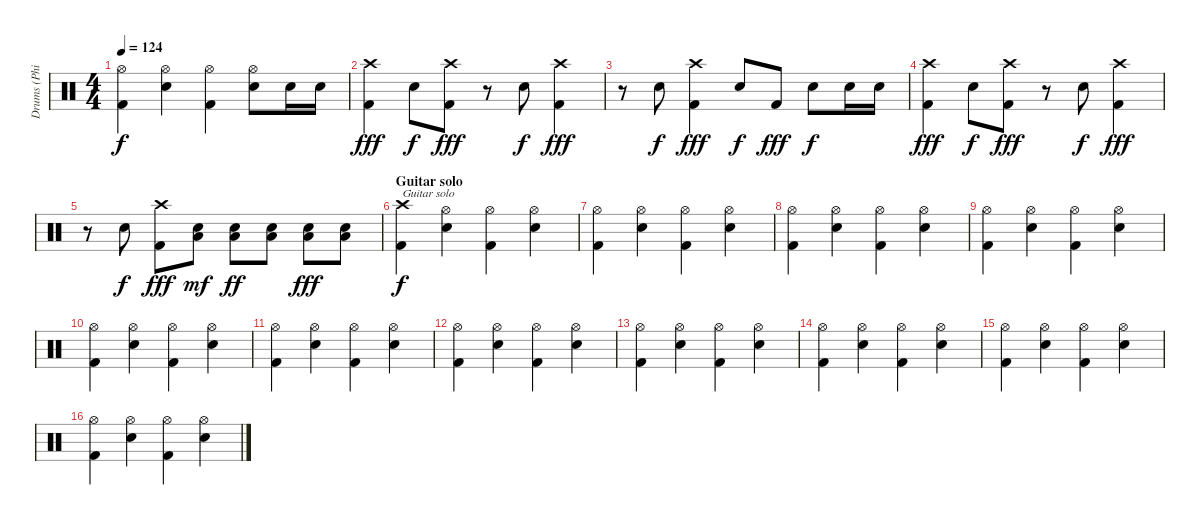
\track ("Drums (Phil R.)" "Drums (Phi") {instrument percussion}
\staff {score}
\articulation defaults
\ts (4 4)
\tempo 124
\clef neutral
\ks c
("Hi-Hat (open)" "Kick (hit) 2").4{dy f} ("Snare (hit) 2" "Hi-Hat (open)").4 ("Hi-Hat (open)" "Kick (hit) 2").4 ("Snare (hit) 2" "Hi-Hat (open)").8 "Snare (hit) 2".16 "Snare (hit) 2".16 |
("Crash high (hit)" "Kick (hit) 2").4{dy fff} "Snare (hit) 2".8{dy f} ("Crash high (hit)" "Kick (hit) 2").8{dy fff} r.8 "Snare (hit) 2".8{dy f} ("Crash high (hit)" "Kick (hit) 2").4{dy fff} |
r.8 "Snare (hit) 2".8{dy f} ("Crash high (hit)" "Kick (hit) 2").4{dy fff} "Snare (hit) 2".8{dy f} "Kick (hit) 2".8{dy fff} "Snare (hit) 2".8{dy f} "Snare (hit) 2".16 "Snare (hit) 2".16 |
("Crash high (hit)" "Kick (hit) 2").4{dy fff} "Snare (hit) 2".8{dy f} ("Crash high (hit)" "Kick (hit) 2").8{dy fff} r.8 "Snare (hit) 2".8{dy f} ("Crash high (hit)" "Kick (hit) 2").4{dy fff} |
r.8 "Snare (hit) 2".8{dy f} ("Crash high (hit)" "Kick (hit) 2").8{dy fff} ("Snare (hit) 2" "Low Floor Tom (hit)").8{dy mf} ("Snare (hit) 2" "Low Floor Tom (hit)").8{dy ff} ("Snare (hit) 2" "Low Floor Tom (hit)").8 ("Snare (hit) 2" "Low Floor Tom (hit)").8{dy fff} ("Snare (hit) 2" "Low Floor Tom (hit)").8 |
\section ("" "Guitar solo")
("Crash high (hit)" "Kick (hit) 2").4{txt "Guitar solo" dy f} ("Hi-Hat (open)" "Snare (hit) 2").4 ("Hi-Hat (open)" "Kick (hit) 2").4 ("Hi-Hat (open)" "Snare (hit) 2").4 |
("Hi-Hat (open)" "Kick (hit) 2").4 ("Hi-Hat (open)" "Snare (hit) 2").4 ("Hi-Hat (open)" "Kick (hit) 2").4 ("Hi-Hat (open)" "Snare (hit) 2").4 |
("Hi-Hat (open)" "Kick (hit) 2").4 ("Hi-Hat (open)" "Snare (hit) 2").4 ("Hi-Hat (open)" "Kick (hit) 2").4 ("Hi-Hat (open)" "Snare (hit) 2").4 |
("Hi-Hat (open)" "Kick (hit) 2").4 ("Hi-Hat (open)" "Snare (hit) 2").4 ("Hi-Hat (open)" "Kick (hit) 2").4 ("Hi-Hat (open)" "Snare (hit) 2").4 |
("Hi-Hat (open)" "Kick (hit) 2").4 ("Hi-Hat (open)" "Snare (hit) 2").4 ("Hi-Hat (open)" "Kick (hit) 2").4 ("Hi-Hat (open)" "Snare (hit) 2").4 |
("Hi-Hat (open)" "Kick (hit) 2").4 ("Hi-Hat (open)" "Snare (hit) 2").4 ("Hi-Hat (open)" "Kick (hit) 2").4 ("Hi-Hat (open)" "Snare (hit) 2").4 |
("Hi-Hat (open)" "Kick (hit) 2").4 ("Hi-Hat (open)" "Snare (hit) 2").4 ("Hi-Hat (open)" "Kick (hit) 2").4 ("Hi-Hat (open)" "Snare (hit) 2").4 |
("Hi-Hat (open)" "Kick (hit) 2").4 ("Hi-Hat (open)" "Snare (hit) 2").4 ("Hi-Hat (open)" "Kick (hit) 2").4 ("Hi-Hat (open)" "Snare (hit) 2").4 |
("Hi-Hat (open)" "Kick (hit) 2").4 ("Hi-Hat (open)" "Snare (hit) 2").4 ("Hi-Hat (open)" "Kick (hit) 2").4 ("Hi-Hat (open)" "Snare (hit) 2").4 |
("Hi-Hat (open)" "Kick (hit) 2").4 ("Hi-Hat (open)" "Snare (hit) 2").4 ("Hi-Hat (open)" "Kick (hit) 2").4 ("Hi-Hat (open)" "Snare (hit) 2").4 |
("Hi-Hat (open)" "Kick (hit) 2").4 ("Hi-Hat (open)" "Snare (hit) 2").4 ("Hi-Hat (open)" "Kick (hit) 2").4 ("Hi-Hat (open)" "Snare (hit) 2").4
